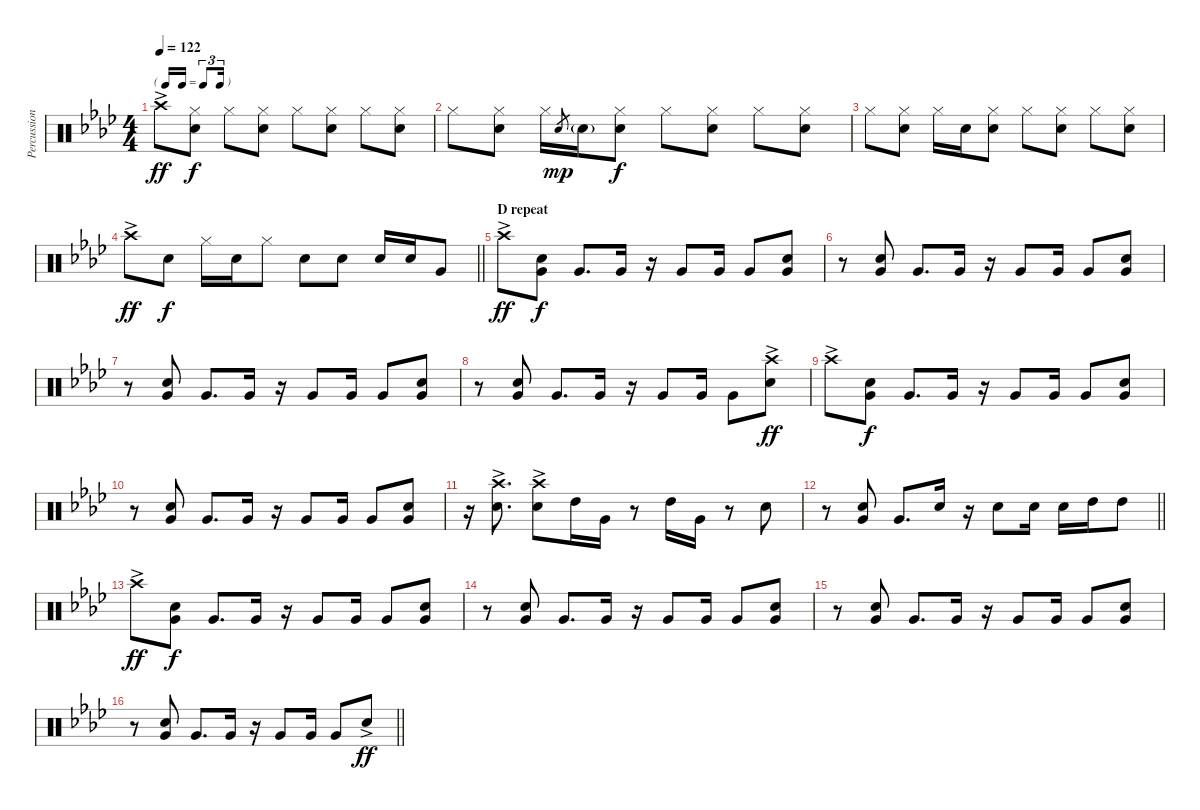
\track ("Percussion Hand" "Percussion") {instrument percussion}
\staff {score}
\articulation defaults
\ts (4 4)
\tf triplet16th
\tempo 122
\clef neutral
\ks ab "Crash high (hit)"{ac}.8{dy ff}
("Hi-Hat (closed)" "Snare (hit) 2").8{dy f} "Hi-Hat (closed)".8 ("Hi-Hat (closed)" "Snare (hit) 2").8 "Hi-Hat (closed)".8 ("Hi-Hat (closed)" "Snare (hit) 2").8 "Hi-Hat (closed)".8 ("Snare (hit) 2" "Hi-Hat (closed)").8 |
"Hi-Hat (closed)".8 ("Hi-Hat (closed)" "Snare (hit) 2").8 "Hi-Hat (closed)".16 "Snare (hit) 2".8{gr dy mp} "Snare (hit) 2"{g}.16 ("Hi-Hat (closed)" "Snare (hit) 2").8{dy f} "Hi-Hat (closed)".8 ("Hi-Hat (closed)" "Snare (hit) 2").8 "Hi-Hat (closed)".8 ("Snare (hit) 2" "Hi-Hat (closed)").8 |
"Hi-Hat (closed)".8 ("Hi-Hat (closed)" "Snare (hit) 2").8 "Hi-Hat (closed)".16 "Snare (hit) 2".16 ("Hi-Hat (closed)" "Snare (hit) 2").8 "Hi-Hat (closed)".8 ("Hi-Hat (closed)" "Snare (hit) 2").8 "Hi-Hat (closed)".8 ("Snare (hit) 2" "Hi-Hat (closed)").8 |
\barLineRight lightlight "Crash high (hit)"{ac}.8{dy ff} "Snare (hit) 2".8{dy f} "Hi-Hat (closed)".16 "Snare (hit) 2".16 "Hi-Hat (closed)".8 "Snare (hit) 2".8 "Snare (hit) 2".8 "Snare (hit) 2".16 "Snare (hit) 2".16 "Very Low Tom (hit)".8
|
\section ("" "D repeat")
"Crash high (hit)"{ac}.8{dy ff} ("Snare (hit) 2" "Very Low Tom (hit)").8{dy f} "Very Low Tom (hit)".8{d} "Very Low Tom (hit)".16 r.16 "Very Low Tom (hit)".8 "Very Low Tom (hit)".16 "Very Low Tom (hit)".8 ("Very Low Tom (hit)" "Snare (hit) 2").8 |
r.8 ("Snare (hit) 2" "Very Low Tom (hit)").8 "Very Low Tom (hit)".8{d} "Very Low Tom (hit)".16 r.16 "Very Low Tom (hit)".8 "Very Low Tom (hit)".16 "Very Low Tom (hit)".8 ("Snare (hit) 2" "Very Low Tom (hit)").8 |
r.8 ("Snare (hit) 2" "Very Low Tom (hit)").8 "Very Low Tom (hit)".8{d} "Very Low Tom (hit)".16 r.16 "Very Low Tom (hit)".8 "Very Low Tom (hit)".16 "Very Low Tom (hit)".8 ("Snare (hit) 2" "Very Low Tom (hit)").8 |
r.8 ("Very Low Tom (hit)" "Snare (hit) 2").8 "Very Low Tom (hit)".8{d} "Very Low Tom (hit)".16 r.16 "Very Low Tom (hit)".8 "Very Low Tom (hit)".16 "Very Low Tom (hit)".8 ("Snare (hit) 2" "Crash high (hit)"{ac}).8{dy ff} |
"Crash high (hit)"{ac}.8 ("Snare (hit) 2" "Very Low Tom (hit)").8{dy f} "Very Low Tom (hit)".8{d} "Very Low Tom (hit)".16 r.16 "Very Low Tom (hit)".8 "Very Low Tom (hit)".16 "Very Low Tom (hit)".8 ("Snare (hit) 2" "Very Low Tom (hit)").8 |
r.8 ("Snare (hit) 2" "Very Low Tom (hit)").8 "Very Low Tom (hit)".8{d} "Very Low Tom (hit)".16 r.16 "Very Low Tom (hit)".8 "Very Low Tom (hit)".16 "Very Low Tom (hit)".8 ("Snare (hit) 2" "Very Low Tom (hit)").8 |
r.16 ("Crash high (hit)"{ac} "Snare (hit) 2"{ac}).8{d} ("Crash high (hit)"{ac} "Snare (hit) 2"{ac}).8 "High Tom (hit)".16 "Very Low Tom (hit)".16 r.8 "High Tom (hit)".16 "Very Low Tom (hit)".16 r.8 "Snare (hit) 2".8 |
\barLineRight lightlight
r.8 ("Snare (hit) 2" "Very Low Tom (hit)").8 "Very Low Tom (hit)".8{d} "Snare (hit) 2".16 r.16 "Snare (hit) 2".8 "Snare (hit) 2".16 "Snare (hit) 2".16 "High Tom (hit)".16 "High Tom (hit)".8 |
"Crash high (hit)"{ac}.8{dy ff} ("Snare (hit) 2" "Very Low Tom (hit)").8{dy f} "Very Low Tom (hit)".8{d} "Very Low Tom (hit)".16 r.16 "Very Low Tom (hit)".8 "Very Low Tom (hit)".16 "Very Low Tom (hit)".8 ("Snare (hit) 2" "Very Low Tom (hit)").8 |
r.8 ("Snare (hit) 2" "Very Low Tom (hit)").8 "Very Low Tom (hit)".8{d} "Very Low Tom (hit)".16 r.16 "Very Low Tom (hit)".8 "Very Low Tom (hit)".16 "Very Low Tom (hit)".8 ("Snare (hit) 2" "Very Low Tom (hit)").8 |
r.8 ("Snare (hit) 2" "Very Low Tom (hit)").8 "Very Low Tom (hit)".8{d} "Very Low Tom (hit)".16 r.16 "Very Low Tom (hit)".8 "Very Low Tom (hit)".16 "Very Low Tom (hit)".8 ("Snare (hit) 2" "Very Low Tom (hit)").8 |
\barLineRight lightlight
r.8 ("Snare (hit) 2" "Very Low Tom (hit)").8 "Very Low Tom (hit)".8{d} "Very Low Tom (hit)".16 r.16 "Very Low Tom (hit)".8 "Very Low Tom (hit)".16 "Very Low Tom (hit)".8 "Snare (hit) 2"{ac}.8{dy ff}
